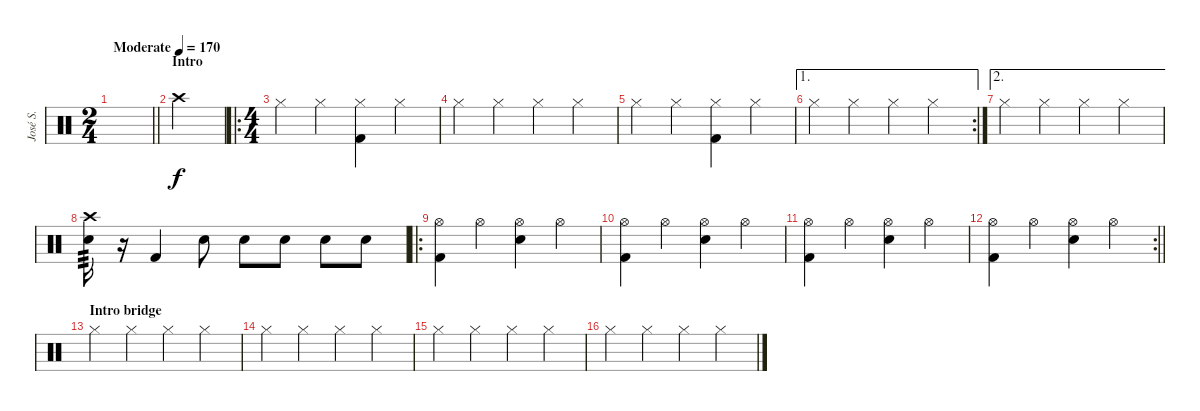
\track ("José S." "José S.") {instrument percussion}
\staff {score}
\articulation defaults
\ts (2 4)
\tempo (170 "Moderate")
\clef neutral
\barLineRight lightlight
\ks c
|
\section ("" "Intro")
"Crash high (hit)".2 |
\ro
\ts (4 4)
"Hi-Hat (closed)".4 "Hi-Hat (closed)".4 ("Hi-Hat (closed)" "Kick (hit) 2").4 "Hi-Hat (closed)".4 |
"Hi-Hat (closed)".4 "Hi-Hat (closed)".4 "Hi-Hat (closed)".4 "Hi-Hat (closed)".4 |
"Hi-Hat (closed)".4 "Hi-Hat (closed)".4 ("Hi-Hat (closed)" "Kick (hit) 2").4 "Hi-Hat (closed)".4 |
\ae 1
\rc 2 "Hi-Hat (closed)".4 "Hi-Hat (closed)".4 "Hi-Hat (closed)".4 "Hi-Hat (closed)".4
|
\ae 2 "Hi-Hat (closed)".4 "Hi-Hat (closed)".4 "Hi-Hat (closed)".4 "Hi-Hat (closed)".4
|
("Crash high (hit)" "Electric Snare (hit)").16{tp 3} r.16 "Kick (hit) 2".4 "Electric Snare (hit)".8 "Electric Snare (hit)".8 "Electric Snare (hit)".8 "Electric Snare (hit)".8 "Electric Snare (hit)".8 |
\ro
("Hi-Hat (open)" "Kick (hit) 2").4 "Hi-Hat (open)".4 ("Hi-Hat (open)" "Electric Snare (hit)").4 "Hi-Hat (open)".4 |
("Hi-Hat (open)" "Kick (hit) 2").4 "Hi-Hat (open)".4 ("Hi-Hat (open)" "Electric Snare (hit)").4 "Hi-Hat (open)".4 |
("Hi-Hat (open)" "Kick (hit) 2").4 "Hi-Hat (open)".4 ("Hi-Hat (open)" "Electric Snare (hit)").4 "Hi-Hat (open)".4 |
\rc 2
\barLineRight lightlight
("Hi-Hat (open)" "Kick (hit) 2").4 "Hi-Hat (open)".4 ("Hi-Hat (open)" "Electric Snare (hit)").4 "Hi-Hat (open)".4 |
\section ("" "Intro bridge")
"Hi-Hat (closed)".4 "Hi-Hat (closed)".4 "Hi-Hat (closed)".4 "Hi-Hat (closed)".4 |
"Hi-Hat (closed)".4 "Hi-Hat (closed)".4 "Hi-Hat (closed)".4 "Hi-Hat (closed)".4 |
"Hi-Hat (closed)".4 "Hi-Hat (closed)".4 "Hi-Hat (closed)".4 "Hi-Hat (closed)".4 |
"Hi-Hat (closed)".4 "Hi-Hat (closed)".4 "Hi-Hat (closed)".4 "Hi-Hat (closed)".4
